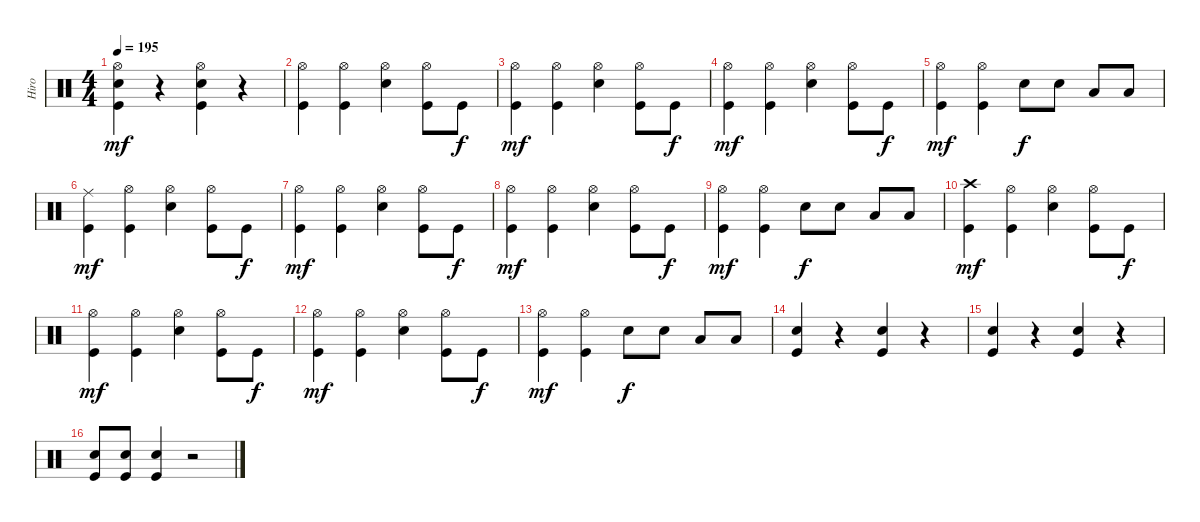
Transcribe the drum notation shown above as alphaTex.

\track ("Hiro" "Hiro") {instrument percussion}
\staff {score}
\articulation defaults
\ts (4 4)
\tempo 195
\clef neutral
\ks c
("Hi-Hat (open)" "Kick (hit)" "Snare (hit) 2").4{dy mf} r.4 ("Hi-Hat (open)" "Kick (hit)" "Snare (hit) 2").4 r.4 |
("Hi-Hat (open)" "Kick (hit)").4 ("Hi-Hat (open)" "Kick (hit)").4 ("Hi-Hat (open)" "Snare (hit) 2").4 ("Hi-Hat (open)" "Kick (hit)").8 "Kick (hit)".8{dy f} |
("Hi-Hat (open)" "Kick (hit)").4{dy mf} ("Hi-Hat (open)" "Kick (hit)").4 ("Snare (hit) 2" "Hi-Hat (open)").4 ("Hi-Hat (open)" "Kick (hit)").8 "Kick (hit)".8{dy f} |
("Kick (hit)" "Hi-Hat (open)").4{dy mf} ("Kick (hit)" "Hi-Hat (open)").4 ("Snare (hit) 2" "Hi-Hat (open)").4 ("Kick (hit)" "Hi-Hat (open)").8 "Kick (hit)".8{dy f} |
("Kick (hit)" "Hi-Hat (open)").4{dy mf} ("Kick (hit)" "Hi-Hat (open)").4 "Snare (hit) 2".8{dy f} "Snare (hit) 2".8 "Low Tom (hit)".8 "Low Tom (hit)".8 |
("Kick (hit)" "Ride (middle)").4{dy mf} ("Kick (hit)" "Hi-Hat (open)").4 ("Snare (hit) 2" "Hi-Hat (open)").4 ("Kick (hit)" "Hi-Hat (open)").8 "Kick (hit)".8{dy f} |
("Kick (hit)" "Hi-Hat (open)").4{dy mf} ("Kick (hit)" "Hi-Hat (open)").4 ("Hi-Hat (open)" "Snare (hit) 2").4 ("Kick (hit)" "Hi-Hat (open)").8 "Kick (hit)".8{dy f} |
("Hi-Hat (open)" "Kick (hit)").4{dy mf} ("Hi-Hat (open)" "Kick (hit)").4 ("Hi-Hat (open)" "Snare (hit) 2").4 ("Hi-Hat (open)" "Kick (hit)").8 "Kick (hit)".8{dy f} |
("Hi-Hat (open)" "Kick (hit)").4{dy mf} ("Hi-Hat (open)" "Kick (hit)").4 "Snare (hit) 2".8{dy f} "Snare (hit) 2".8 "Low Tom (hit)".8 "Low Tom (hit)".8 |
("Kick (hit)" "Crash high (hit)").4{dy mf} ("Kick (hit)" "Hi-Hat (open)").4 ("Snare (hit) 2" "Hi-Hat (open)").4 ("Kick (hit)" "Hi-Hat (open)").8 "Kick (hit)".8{dy f} |
("Kick (hit)" "Hi-Hat (open)").4{dy mf} ("Kick (hit)" "Hi-Hat (open)").4 ("Hi-Hat (open)" "Snare (hit) 2").4 ("Kick (hit)" "Hi-Hat (open)").8 "Kick (hit)".8{dy f} |
("Hi-Hat (open)" "Kick (hit)").4{dy mf} ("Hi-Hat (open)" "Kick (hit)").4 ("Hi-Hat (open)" "Snare (hit) 2").4 ("Hi-Hat (open)" "Kick (hit)").8 "Kick (hit)".8{dy f} |
("Hi-Hat (open)" "Kick (hit)").4{dy mf} ("Hi-Hat (open)" "Kick (hit)").4 "Snare (hit) 2".8{dy f} "Snare (hit) 2".8 "Low Tom (hit)".8 "Low Tom (hit)".8 |
("Snare (hit) 2" "Kick (hit)").4 r.4 ("Snare (hit) 2" "Kick (hit)").4 r.4 |
("Snare (hit) 2" "Kick (hit)").4 r.4 ("Snare (hit) 2" "Kick (hit)").4 r.4 |
("Kick (hit)" "Snare (hit) 2").8 ("Kick (hit)" "Snare (hit) 2").8 ("Kick (hit)" "Snare (hit) 2").4 r.2
